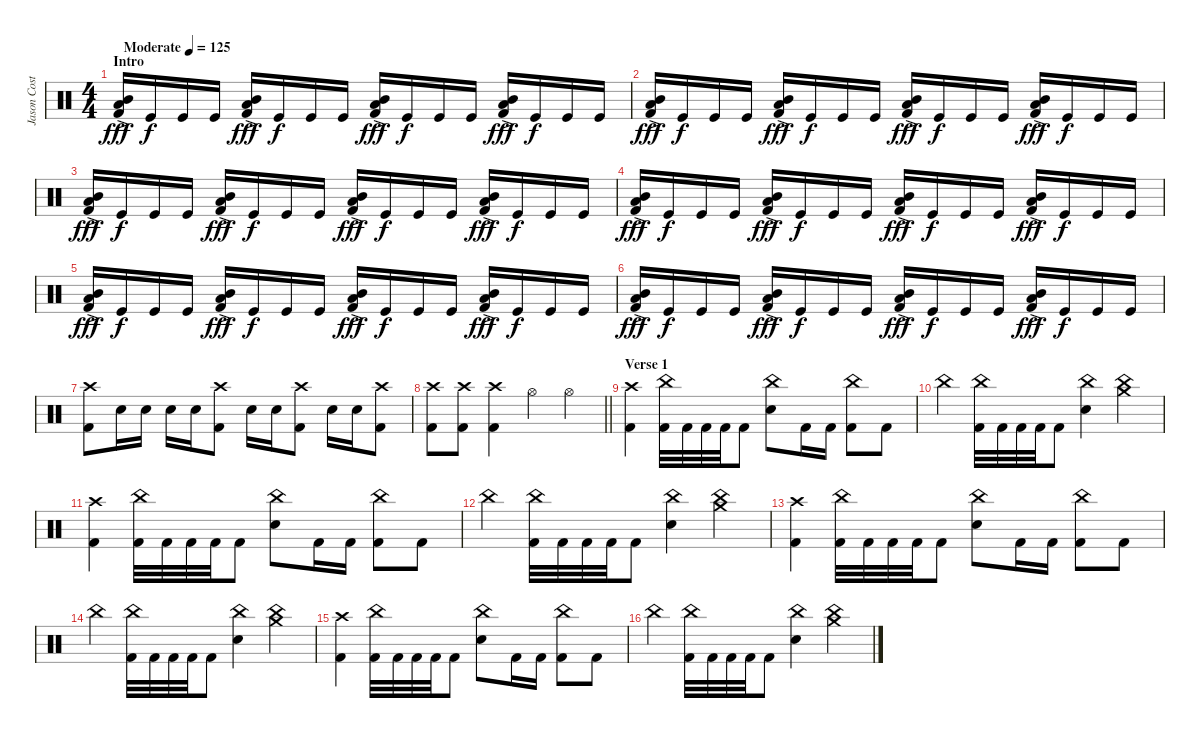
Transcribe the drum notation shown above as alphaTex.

\track ("Jason Costa" "Jason Cost") {instrument percussion}
\staff {score}
\articulation defaults
\ts (4 4)
\section ("" "Intro")
\tempo (125 "Moderate")
\clef neutral
\ks c
("Low Tom (hit)"{ac} "Mid Tom (hit)"{ac} "Kick (hit) 2"{ac}).16{dy fff} "Kick (hit)".16{dy f} "Kick (hit)".16 "Kick (hit)".16 ("Low Tom (hit)"{ac} "Mid Tom (hit)"{ac} "Kick (hit) 2"{ac}).16{dy fff} "Kick (hit)".16{dy f} "Kick (hit)".16 "Kick (hit)".16 ("Low Tom (hit)"{ac} "Mid Tom (hit)"{ac} "Kick (hit) 2"{ac}).16{dy fff} "Kick (hit)".16{dy f} "Kick (hit)".16 "Kick (hit)".16 ("Low Tom (hit)"{ac} "Mid Tom (hit)"{ac} "Kick (hit) 2"{ac}).16{dy fff} "Kick (hit)".16{dy f} "Kick (hit)".16 "Kick (hit)".16 |
("Low Tom (hit)"{ac} "Mid Tom (hit)"{ac} "Kick (hit) 2"{ac}).16{dy fff} "Kick (hit)".16{dy f} "Kick (hit)".16 "Kick (hit)".16 ("Low Tom (hit)"{ac} "Mid Tom (hit)"{ac} "Kick (hit) 2"{ac}).16{dy fff} "Kick (hit)".16{dy f} "Kick (hit)".16 "Kick (hit)".16 ("Low Tom (hit)"{ac} "Mid Tom (hit)"{ac} "Kick (hit) 2"{ac}).16{dy fff} "Kick (hit)".16{dy f} "Kick (hit)".16 "Kick (hit)".16 ("Low Tom (hit)"{ac} "Mid Tom (hit)"{ac} "Kick (hit) 2"{ac}).16{dy fff} "Kick (hit)".16{dy f} "Kick (hit)".16 "Kick (hit)".16 |
("Low Tom (hit)"{ac} "Mid Tom (hit)"{ac} "Kick (hit) 2"{ac}).16{dy fff} "Kick (hit)".16{dy f} "Kick (hit)".16 "Kick (hit)".16 ("Low Tom (hit)"{ac} "Mid Tom (hit)"{ac} "Kick (hit) 2"{ac}).16{dy fff} "Kick (hit)".16{dy f} "Kick (hit)".16 "Kick (hit)".16 ("Low Tom (hit)"{ac} "Mid Tom (hit)"{ac} "Kick (hit) 2"{ac}).16{dy fff} "Kick (hit)".16{dy f} "Kick (hit)".16 "Kick (hit)".16 ("Low Tom (hit)"{ac} "Mid Tom (hit)"{ac} "Kick (hit) 2"{ac}).16{dy fff} "Kick (hit)".16{dy f} "Kick (hit)".16 "Kick (hit)".16 |
("Low Tom (hit)"{ac} "Mid Tom (hit)"{ac} "Kick (hit) 2"{ac}).16{dy fff} "Kick (hit)".16{dy f} "Kick (hit)".16 "Kick (hit)".16 ("Low Tom (hit)"{ac} "Mid Tom (hit)"{ac} "Kick (hit) 2"{ac}).16{dy fff} "Kick (hit)".16{dy f} "Kick (hit)".16 "Kick (hit)".16 ("Low Tom (hit)"{ac} "Mid Tom (hit)"{ac} "Kick (hit) 2"{ac}).16{dy fff} "Kick (hit)".16{dy f} "Kick (hit)".16 "Kick (hit)".16 ("Low Tom (hit)"{ac} "Mid Tom (hit)"{ac} "Kick (hit) 2"{ac}).16{dy fff} "Kick (hit)".16{dy f} "Kick (hit)".16 "Kick (hit)".16 |
("Low Tom (hit)"{ac} "Mid Tom (hit)"{ac} "Kick (hit) 2"{ac}).16{dy fff} "Kick (hit)".16{dy f} "Kick (hit)".16 "Kick (hit)".16 ("Low Tom (hit)"{ac} "Mid Tom (hit)"{ac} "Kick (hit) 2"{ac}).16{dy fff} "Kick (hit)".16{dy f} "Kick (hit)".16 "Kick (hit)".16 ("Low Tom (hit)"{ac} "Mid Tom (hit)"{ac} "Kick (hit) 2"{ac}).16{dy fff} "Kick (hit)".16{dy f} "Kick (hit)".16 "Kick (hit)".16 ("Low Tom (hit)"{ac} "Mid Tom (hit)"{ac} "Kick (hit) 2"{ac}).16{dy fff} "Kick (hit)".16{dy f} "Kick (hit)".16 "Kick (hit)".16 |
("Low Tom (hit)"{ac} "Mid Tom (hit)"{ac} "Kick (hit) 2"{ac}).16{dy fff} "Kick (hit)".16{dy f} "Kick (hit)".16 "Kick (hit)".16 ("Low Tom (hit)"{ac} "Mid Tom (hit)"{ac} "Kick (hit) 2"{ac}).16{dy fff} "Kick (hit)".16{dy f} "Kick (hit)".16 "Kick (hit)".16 ("Low Tom (hit)"{ac} "Mid Tom (hit)"{ac} "Kick (hit) 2"{ac}).16{dy fff} "Kick (hit)".16{dy f} "Kick (hit)".16 "Kick (hit)".16 ("Low Tom (hit)"{ac} "Mid Tom (hit)"{ac} "Kick (hit) 2"{ac}).16{dy fff} "Kick (hit)".16{dy f} "Kick (hit)".16 "Kick (hit)".16 |
("Crash high (hit)" "Kick (hit) 2").8 "Electric Snare (hit)".16 "Electric Snare (hit)".16 "Electric Snare (hit)".16 "Electric Snare (hit)".16 ("Crash high (hit)" "Kick (hit) 2").8 "Electric Snare (hit)".16 "Electric Snare (hit)".16 ("Crash high (hit)" "Kick (hit) 2").8 "Electric Snare (hit)".16 "Electric Snare (hit)".16 ("Crash high (hit)" "Kick (hit) 2").8 |
\barLineRight lightlight
("Crash high (hit)" "Kick (hit) 2").8 ("Crash high (hit)" "Kick (hit) 2").8 ("Crash high (hit)" "Kick (hit) 2").4 "Hi-Hat (open)".4 "Hi-Hat (open)".4 |
\section ("" "Verse 1")
("Crash high (hit)" "Kick (hit) 2").4 ("China (hit)" "Kick (hit) 2").32 "Kick (hit) 2".32 "Kick (hit) 2".32 "Kick (hit) 2".32 "Kick (hit) 2".8 ("China (hit)" "Electric Snare (hit)").8 "Kick (hit) 2".16 "Kick (hit) 2".16 ("China (hit)" "Kick (hit) 2").8 "Kick (hit) 2".8 |
"China (hit)".4 ("China (hit)" "Kick (hit) 2").32 "Kick (hit) 2".32 "Kick (hit) 2".32 "Kick (hit) 2".32 "Kick (hit) 2".8 ("China (hit)" "Electric Snare (hit)").4 ("China (hit)" "Crash medium (hit)").4 |
("Crash high (hit)" "Kick (hit) 2").4 ("China (hit)" "Kick (hit) 2").32 "Kick (hit) 2".32 "Kick (hit) 2".32 "Kick (hit) 2".32 "Kick (hit) 2".8 ("China (hit)" "Electric Snare (hit)").8 "Kick (hit) 2".16 "Kick (hit) 2".16 ("China (hit)" "Kick (hit) 2").8 "Kick (hit) 2".8 |
"China (hit)".4 ("China (hit)" "Kick (hit) 2").32 "Kick (hit) 2".32 "Kick (hit) 2".32 "Kick (hit) 2".32 "Kick (hit) 2".8 ("China (hit)" "Electric Snare (hit)").4 ("China (hit)" "Crash medium (hit)").4 |
("Crash high (hit)" "Kick (hit) 2").4 ("China (hit)" "Kick (hit) 2").32 "Kick (hit) 2".32 "Kick (hit) 2".32 "Kick (hit) 2".32 "Kick (hit) 2".8 ("China (hit)" "Electric Snare (hit)").8 "Kick (hit) 2".16 "Kick (hit) 2".16 ("China (hit)" "Kick (hit) 2").8 "Kick (hit) 2".8 |
"China (hit)".4 ("China (hit)" "Kick (hit) 2").32 "Kick (hit) 2".32 "Kick (hit) 2".32 "Kick (hit) 2".32 "Kick (hit) 2".8 ("China (hit)" "Electric Snare (hit)").4 ("China (hit)" "Crash medium (hit)").4 |
("Crash high (hit)" "Kick (hit) 2").4 ("China (hit)" "Kick (hit) 2").32 "Kick (hit) 2".32 "Kick (hit) 2".32 "Kick (hit) 2".32 "Kick (hit) 2".8 ("China (hit)" "Electric Snare (hit)").8 "Kick (hit) 2".16 "Kick (hit) 2".16 ("China (hit)" "Kick (hit) 2").8 "Kick (hit) 2".8 |
"China (hit)".4 ("China (hit)" "Kick (hit) 2").32 "Kick (hit) 2".32 "Kick (hit) 2".32 "Kick (hit) 2".32 "Kick (hit) 2".8 ("China (hit)" "Electric Snare (hit)").4 ("China (hit)" "Crash medium (hit)").4
